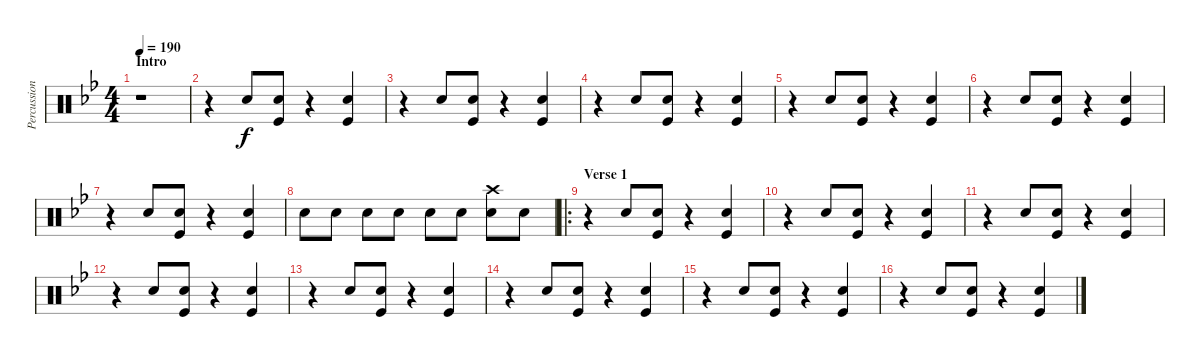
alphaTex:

\track ("Percussion" "Percussion") {instrument percussion}
\staff {score}
\articulation defaults
\ts (4 4)
\section ("" "Intro")
\tempo 190
\clef neutral
\ks bb
r.1{dy f} |
r.4 "Snare (hit) 2".8 ("Kick (hit)" "Snare (hit) 2").8 r.4 ("Kick (hit)" "Snare (hit) 2").4 |
r.4 "Snare (hit) 2".8 ("Kick (hit)" "Snare (hit) 2").8 r.4 ("Kick (hit)" "Snare (hit) 2").4 |
r.4 "Snare (hit) 2".8 ("Kick (hit)" "Snare (hit) 2").8 r.4 ("Kick (hit)" "Snare (hit) 2").4 |
r.4 "Snare (hit) 2".8 ("Kick (hit)" "Snare (hit) 2").8 r.4 ("Kick (hit)" "Snare (hit) 2").4 |
r.4 "Snare (hit) 2".8 ("Kick (hit)" "Snare (hit) 2").8 r.4 ("Kick (hit)" "Snare (hit) 2").4 |
r.4 "Snare (hit) 2".8 ("Kick (hit)" "Snare (hit) 2").8 r.4 ("Kick (hit)" "Snare (hit) 2").4 |
"Snare (hit) 2".8 "Snare (hit) 2".8 "Snare (hit) 2".8 "Snare (hit) 2".8 "Snare (hit) 2".8 "Snare (hit) 2".8 ("Snare (hit) 2" "Crash high (hit)").8 "Snare (hit) 2".8 |
\ro
\section ("" "Verse 1")
r.4 "Snare (hit) 2".8 ("Kick (hit)" "Snare (hit) 2").8 r.4 ("Kick (hit)" "Snare (hit) 2").4 |
r.4 "Snare (hit) 2".8 ("Kick (hit)" "Snare (hit) 2").8 r.4 ("Kick (hit)" "Snare (hit) 2").4 |
r.4 "Snare (hit) 2".8 ("Kick (hit)" "Snare (hit) 2").8 r.4 ("Kick (hit)" "Snare (hit) 2").4 |
r.4 "Snare (hit) 2".8 ("Kick (hit)" "Snare (hit) 2").8 r.4 ("Kick (hit)" "Snare (hit) 2").4 |
r.4 "Snare (hit) 2".8 ("Kick (hit)" "Snare (hit) 2").8 r.4 ("Kick (hit)" "Snare (hit) 2").4 |
r.4 "Snare (hit) 2".8 ("Kick (hit)" "Snare (hit) 2").8 r.4 ("Kick (hit)" "Snare (hit) 2").4 |
r.4 "Snare (hit) 2".8 ("Kick (hit)" "Snare (hit) 2").8 r.4 ("Kick (hit)" "Snare (hit) 2").4 |
r.4 "Snare (hit) 2".8 ("Kick (hit)" "Snare (hit) 2").8 r.4 ("Kick (hit)" "Snare (hit) 2").4
